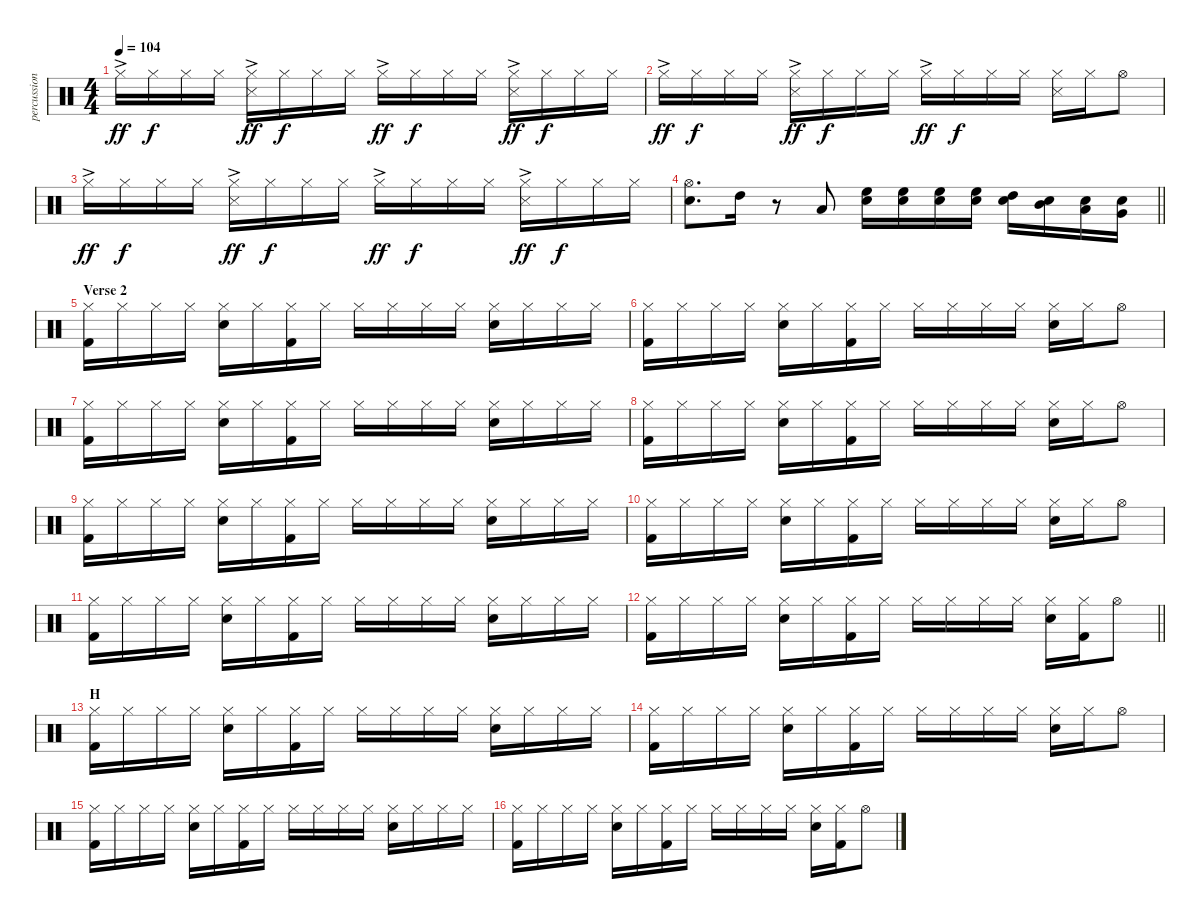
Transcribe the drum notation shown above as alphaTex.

\track ("percussion" "percussion") {instrument percussion}
\staff {score}
\articulation defaults
\ts (4 4)
\tempo 104
\clef neutral
\ks c "Hi-Hat (closed)"{ac}.16{dy ff} "Hi-Hat (closed)".16{dy f} "Hi-Hat (closed)".16 "Hi-Hat (closed)".16
("Metronome (hit)" "Hi-Hat (closed)"{ac}).16{dy ff} "Hi-Hat (closed)".16{dy f} "Hi-Hat (closed)".16 "Hi-Hat (closed)".16 "Hi-Hat (closed)"{ac}.16{dy ff} "Hi-Hat (closed)".16{dy f} "Hi-Hat (closed)".16 "Hi-Hat (closed)".16 ("Metronome (hit)" "Hi-Hat (closed)"{ac}).16{dy ff} "Hi-Hat (closed)".16{dy f} "Hi-Hat (closed)".16 "Hi-Hat (closed)".16 |
"Hi-Hat (closed)"{ac}.16{dy ff} "Hi-Hat (closed)".16{dy f} "Hi-Hat (closed)".16 "Hi-Hat (closed)".16 ("Metronome (hit)" "Hi-Hat (closed)"{ac}).16{dy ff} "Hi-Hat (closed)".16{dy f} "Hi-Hat (closed)".16 "Hi-Hat (closed)".16 "Hi-Hat (closed)"{ac}.16{dy ff} "Hi-Hat (closed)".16{dy f} "Hi-Hat (closed)".16 "Hi-Hat (closed)".16 ("Metronome (hit)" "Hi-Hat (closed)").16 "Hi-Hat (closed)".16 "Hi-Hat (open)".8 |
"Hi-Hat (closed)"{ac}.16{dy ff} "Hi-Hat (closed)".16{dy f} "Hi-Hat (closed)".16 "Hi-Hat (closed)".16 ("Metronome (hit)" "Hi-Hat (closed)"{ac}).16{dy ff} "Hi-Hat (closed)".16{dy f} "Hi-Hat (closed)".16 "Hi-Hat (closed)".16 "Hi-Hat (closed)"{ac}.16{dy ff} "Hi-Hat (closed)".16{dy f} "Hi-Hat (closed)".16 "Hi-Hat (closed)".16 ("Metronome (hit)" "Hi-Hat (closed)"{ac}).16{dy ff} "Hi-Hat (closed)".16{dy f} "Hi-Hat (closed)".16 "Hi-Hat (closed)".16 |
\barLineRight lightlight
("Snare (hit) 2" "Hi-Hat (open)").8{d} "High Tom (hit)".16 r.8 "Low Tom (hit)".8 ("High Floor Tom (hit)" "Snare (hit) 2").16 ("High Floor Tom (hit)" "Snare (hit) 2").16 ("High Floor Tom (hit)" "Snare (hit) 2").16 ("High Floor Tom (hit)" "Snare (hit) 2").16 ("High Tom (hit)" "Snare (hit) 2").16 ("Mid Tom (hit)" "Snare (hit) 2").16 ("Low Tom (hit)" "Snare (hit) 2").16 ("Very Low Tom (hit)" "Snare (hit) 2").16 |
\section ("" "Verse 2")
("Hi-Hat (closed)" "Kick (hit) 2").16 "Hi-Hat (closed)".16 "Hi-Hat (closed)".16 "Hi-Hat (closed)".16 ("Snare (hit) 2" "Hi-Hat (closed)").16 "Hi-Hat (closed)".16 ("Hi-Hat (closed)" "Kick (hit) 2").16 "Hi-Hat (closed)".16 "Hi-Hat (closed)".16 "Hi-Hat (closed)".16 "Hi-Hat (closed)".16 "Hi-Hat (closed)".16 ("Snare (hit) 2" "Hi-Hat (closed)").16 "Hi-Hat (closed)".16 "Hi-Hat (closed)".16 "Hi-Hat (closed)".16 |
("Hi-Hat (closed)" "Kick (hit) 2").16 "Hi-Hat (closed)".16 "Hi-Hat (closed)".16 "Hi-Hat (closed)".16 ("Snare (hit) 2" "Hi-Hat (closed)").16 "Hi-Hat (closed)".16 ("Hi-Hat (closed)" "Kick (hit) 2").16 "Hi-Hat (closed)".16 "Hi-Hat (closed)".16 "Hi-Hat (closed)".16 "Hi-Hat (closed)".16 "Hi-Hat (closed)".16 ("Snare (hit) 2" "Hi-Hat (closed)").16 "Hi-Hat (closed)".16 "Hi-Hat (open)".8 |
("Hi-Hat (closed)" "Kick (hit) 2").16 "Hi-Hat (closed)".16 "Hi-Hat (closed)".16 "Hi-Hat (closed)".16 ("Snare (hit) 2" "Hi-Hat (closed)").16 "Hi-Hat (closed)".16 ("Hi-Hat (closed)" "Kick (hit) 2").16 "Hi-Hat (closed)".16 "Hi-Hat (closed)".16 "Hi-Hat (closed)".16 "Hi-Hat (closed)".16 "Hi-Hat (closed)".16 ("Snare (hit) 2" "Hi-Hat (closed)").16 "Hi-Hat (closed)".16 "Hi-Hat (closed)".16 "Hi-Hat (closed)".16 |
("Hi-Hat (closed)" "Kick (hit) 2").16 "Hi-Hat (closed)".16 "Hi-Hat (closed)".16 "Hi-Hat (closed)".16 ("Snare (hit) 2" "Hi-Hat (closed)").16 "Hi-Hat (closed)".16 ("Hi-Hat (closed)" "Kick (hit) 2").16 "Hi-Hat (closed)".16 "Hi-Hat (closed)".16 "Hi-Hat (closed)".16 "Hi-Hat (closed)".16 "Hi-Hat (closed)".16 ("Snare (hit) 2" "Hi-Hat (closed)").16 "Hi-Hat (closed)".16 "Hi-Hat (open)".8 |
("Hi-Hat (closed)" "Kick (hit) 2").16 "Hi-Hat (closed)".16 "Hi-Hat (closed)".16 "Hi-Hat (closed)".16 ("Snare (hit) 2" "Hi-Hat (closed)").16 "Hi-Hat (closed)".16 ("Hi-Hat (closed)" "Kick (hit) 2").16 "Hi-Hat (closed)".16 "Hi-Hat (closed)".16 "Hi-Hat (closed)".16 "Hi-Hat (closed)".16 "Hi-Hat (closed)".16 ("Snare (hit) 2" "Hi-Hat (closed)").16 "Hi-Hat (closed)".16 "Hi-Hat (closed)".16 "Hi-Hat (closed)".16 |
("Hi-Hat (closed)" "Kick (hit) 2").16 "Hi-Hat (closed)".16 "Hi-Hat (closed)".16 "Hi-Hat (closed)".16 ("Snare (hit) 2" "Hi-Hat (closed)").16 "Hi-Hat (closed)".16 ("Hi-Hat (closed)" "Kick (hit) 2").16 "Hi-Hat (closed)".16 "Hi-Hat (closed)".16 "Hi-Hat (closed)".16 "Hi-Hat (closed)".16 "Hi-Hat (closed)".16 ("Snare (hit) 2" "Hi-Hat (closed)").16 "Hi-Hat (closed)".16 "Hi-Hat (open)".8 |
("Hi-Hat (closed)" "Kick (hit) 2").16 "Hi-Hat (closed)".16 "Hi-Hat (closed)".16 "Hi-Hat (closed)".16 ("Snare (hit) 2" "Hi-Hat (closed)").16 "Hi-Hat (closed)".16 ("Hi-Hat (closed)" "Kick (hit) 2").16 "Hi-Hat (closed)".16 "Hi-Hat (closed)".16 "Hi-Hat (closed)".16 "Hi-Hat (closed)".16 "Hi-Hat (closed)".16 ("Snare (hit) 2" "Hi-Hat (closed)").16 "Hi-Hat (closed)".16 "Hi-Hat (closed)".16 "Hi-Hat (closed)".16 |
\barLineRight lightlight
("Hi-Hat (closed)" "Kick (hit) 2").16 "Hi-Hat (closed)".16 "Hi-Hat (closed)".16 "Hi-Hat (closed)".16 ("Snare (hit) 2" "Hi-Hat (closed)").16 "Hi-Hat (closed)".16 ("Hi-Hat (closed)" "Kick (hit) 2").16 "Hi-Hat (closed)".16 "Hi-Hat (closed)".16 "Hi-Hat (closed)".16 "Hi-Hat (closed)".16 "Hi-Hat (closed)".16 ("Snare (hit) 2" "Hi-Hat (closed)").16 ("Hi-Hat (closed)" "Kick (hit) 2").16 "Hi-Hat (open)".8 |
\section ("" "H")
("Hi-Hat (closed)" "Kick (hit) 2").16 "Hi-Hat (closed)".16 "Hi-Hat (closed)".16 "Hi-Hat (closed)".16 ("Snare (hit) 2" "Hi-Hat (closed)").16 "Hi-Hat (closed)".16 ("Hi-Hat (closed)" "Kick (hit) 2").16 "Hi-Hat (closed)".16 "Hi-Hat (closed)".16 "Hi-Hat (closed)".16 "Hi-Hat (closed)".16 "Hi-Hat (closed)".16 ("Snare (hit) 2" "Hi-Hat (closed)").16 "Hi-Hat (closed)".16 "Hi-Hat (closed)".16 "Hi-Hat (closed)".16 |
("Hi-Hat (closed)" "Kick (hit) 2").16 "Hi-Hat (closed)".16 "Hi-Hat (closed)".16 "Hi-Hat (closed)".16 ("Snare (hit) 2" "Hi-Hat (closed)").16 "Hi-Hat (closed)".16 ("Hi-Hat (closed)" "Kick (hit) 2").16 "Hi-Hat (closed)".16 "Hi-Hat (closed)".16 "Hi-Hat (closed)".16 "Hi-Hat (closed)".16 "Hi-Hat (closed)".16 ("Snare (hit) 2" "Hi-Hat (closed)").16 "Hi-Hat (closed)".16 "Hi-Hat (open)".8 |
("Hi-Hat (closed)" "Kick (hit) 2").16 "Hi-Hat (closed)".16 "Hi-Hat (closed)".16 "Hi-Hat (closed)".16 ("Snare (hit) 2" "Hi-Hat (closed)").16 "Hi-Hat (closed)".16 ("Hi-Hat (closed)" "Kick (hit) 2").16 "Hi-Hat (closed)".16 "Hi-Hat (closed)".16 "Hi-Hat (closed)".16 "Hi-Hat (closed)".16 "Hi-Hat (closed)".16 ("Snare (hit) 2" "Hi-Hat (closed)").16 "Hi-Hat (closed)".16 "Hi-Hat (closed)".16 "Hi-Hat (closed)".16 |
("Hi-Hat (closed)" "Kick (hit) 2").16 "Hi-Hat (closed)".16 "Hi-Hat (closed)".16 "Hi-Hat (closed)".16 ("Snare (hit) 2" "Hi-Hat (closed)").16 "Hi-Hat (closed)".16 ("Hi-Hat (closed)" "Kick (hit) 2").16 "Hi-Hat (closed)".16 "Hi-Hat (closed)".16 "Hi-Hat (closed)".16 "Hi-Hat (closed)".16 "Hi-Hat (closed)".16 ("Snare (hit) 2" "Hi-Hat (closed)").16 ("Hi-Hat (closed)" "Kick (hit) 2").16 "Hi-Hat (open)".8
